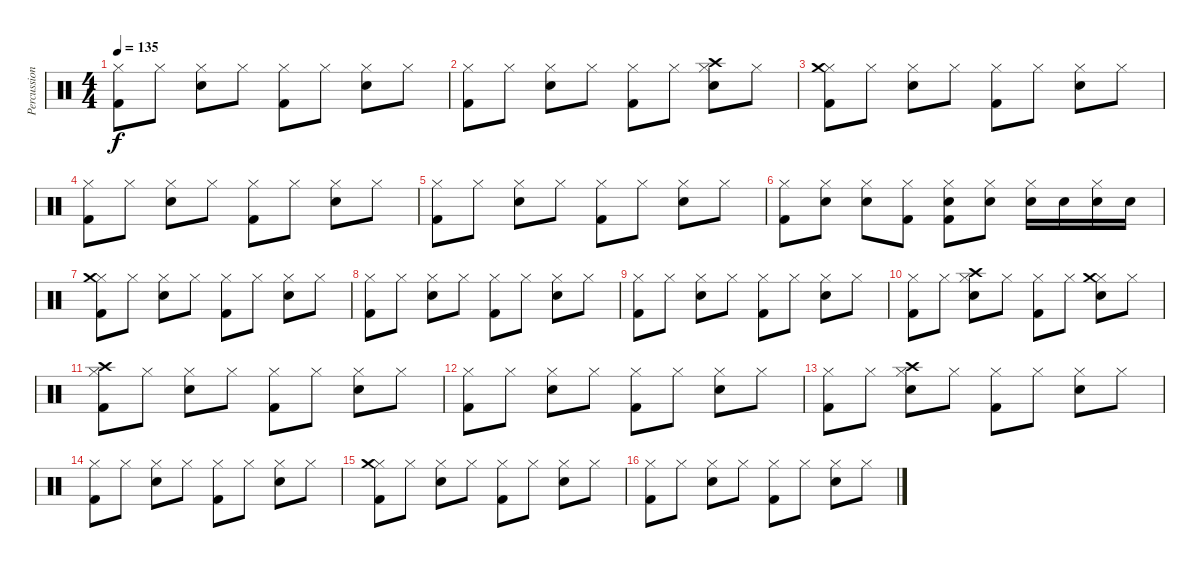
\track ("Percussion" "Percussion") {instrument percussion}
\staff {score}
\articulation defaults
\ts (4 4)
\tempo 135
\clef neutral
\ks c
("Hi-Hat (closed)" "Kick (hit) 2").8{dy f} "Hi-Hat (closed)".8 ("Hi-Hat (closed)" "Electric Snare (hit)").8 "Hi-Hat (closed)".8 ("Hi-Hat (closed)" "Kick (hit) 2").8 "Hi-Hat (closed)".8 ("Hi-Hat (closed)" "Electric Snare (hit)").8 "Hi-Hat (closed)".8 |
("Hi-Hat (closed)" "Kick (hit) 2").8 "Hi-Hat (closed)".8 ("Hi-Hat (closed)" "Electric Snare (hit)").8 "Hi-Hat (closed)".8 ("Hi-Hat (closed)" "Kick (hit) 2").8 "Hi-Hat (closed)".8 ("Hi-Hat (closed)" "Crash high (hit)" "Electric Snare (hit)").8 "Hi-Hat (closed)".8 |
("Hi-Hat (closed)" "Kick (hit) 2" "Crash medium (hit)").8 "Hi-Hat (closed)".8 ("Hi-Hat (closed)" "Electric Snare (hit)").8 "Hi-Hat (closed)".8 ("Hi-Hat (closed)" "Kick (hit) 2").8 "Hi-Hat (closed)".8 ("Hi-Hat (closed)" "Electric Snare (hit)").8 "Hi-Hat (closed)".8 |
("Hi-Hat (closed)" "Kick (hit) 2").8 "Hi-Hat (closed)".8 ("Hi-Hat (closed)" "Electric Snare (hit)").8 "Hi-Hat (closed)".8 ("Hi-Hat (closed)" "Kick (hit) 2").8 "Hi-Hat (closed)".8 ("Hi-Hat (closed)" "Electric Snare (hit)").8 "Hi-Hat (closed)".8 |
("Hi-Hat (closed)" "Kick (hit) 2").8 "Hi-Hat (closed)".8 ("Hi-Hat (closed)" "Electric Snare (hit)").8 "Hi-Hat (closed)".8 ("Hi-Hat (closed)" "Kick (hit) 2").8 "Hi-Hat (closed)".8 ("Hi-Hat (closed)" "Electric Snare (hit)").8 "Hi-Hat (closed)".8 |
("Hi-Hat (closed)" "Kick (hit) 2").8 ("Hi-Hat (closed)" "Electric Snare (hit)").8 ("Hi-Hat (closed)" "Electric Snare (hit)").8 ("Hi-Hat (closed)" "Kick (hit) 2").8 ("Hi-Hat (closed)" "Kick (hit) 2" "Electric Snare (hit)").8 ("Hi-Hat (closed)" "Electric Snare (hit)").8 ("Hi-Hat (closed)" "Electric Snare (hit)").16 "Electric Snare (hit)".16 ("Hi-Hat (closed)" "Electric Snare (hit)").16 "Electric Snare (hit)".16 |
("Hi-Hat (closed)" "Kick (hit) 2" "Crash medium (hit)").8 "Hi-Hat (closed)".8 ("Hi-Hat (closed)" "Electric Snare (hit)").8 "Hi-Hat (closed)".8 ("Hi-Hat (closed)" "Kick (hit) 2").8 "Hi-Hat (closed)".8 ("Hi-Hat (closed)" "Electric Snare (hit)").8 "Hi-Hat (closed)".8 |
("Hi-Hat (closed)" "Kick (hit) 2").8 "Hi-Hat (closed)".8 ("Hi-Hat (closed)" "Electric Snare (hit)").8 "Hi-Hat (closed)".8 ("Hi-Hat (closed)" "Kick (hit) 2").8 "Hi-Hat (closed)".8 ("Hi-Hat (closed)" "Electric Snare (hit)").8 "Hi-Hat (closed)".8 |
("Hi-Hat (closed)" "Kick (hit) 2").8 "Hi-Hat (closed)".8 ("Hi-Hat (closed)" "Electric Snare (hit)").8 "Hi-Hat (closed)".8 ("Hi-Hat (closed)" "Kick (hit) 2").8 "Hi-Hat (closed)".8 ("Hi-Hat (closed)" "Electric Snare (hit)").8 "Hi-Hat (closed)".8 |
("Hi-Hat (closed)" "Kick (hit) 2").8 "Hi-Hat (closed)".8 ("Hi-Hat (closed)" "Crash high (hit)" "Electric Snare (hit)").8 "Hi-Hat (closed)".8 ("Hi-Hat (closed)" "Kick (hit) 2").8 "Hi-Hat (closed)".8 ("Hi-Hat (closed)" "Crash medium (hit)" "Electric Snare (hit)").8 "Hi-Hat (closed)".8 |
("Hi-Hat (closed)" "Kick (hit) 2" "Crash high (hit)").8 "Hi-Hat (closed)".8 ("Hi-Hat (closed)" "Electric Snare (hit)").8 "Hi-Hat (closed)".8 ("Hi-Hat (closed)" "Kick (hit) 2").8 "Hi-Hat (closed)".8 ("Hi-Hat (closed)" "Electric Snare (hit)").8 "Hi-Hat (closed)".8 |
("Hi-Hat (closed)" "Kick (hit) 2").8 "Hi-Hat (closed)".8 ("Hi-Hat (closed)" "Electric Snare (hit)").8 "Hi-Hat (closed)".8 ("Hi-Hat (closed)" "Kick (hit) 2").8 "Hi-Hat (closed)".8 ("Hi-Hat (closed)" "Electric Snare (hit)").8 "Hi-Hat (closed)".8 |
("Hi-Hat (closed)" "Kick (hit) 2").8 "Hi-Hat (closed)".8 ("Hi-Hat (closed)" "Crash high (hit)" "Electric Snare (hit)").8 "Hi-Hat (closed)".8 ("Hi-Hat (closed)" "Kick (hit) 2").8 "Hi-Hat (closed)".8 ("Hi-Hat (closed)" "Electric Snare (hit)").8 "Hi-Hat (closed)".8 |
("Hi-Hat (closed)" "Kick (hit) 2").8 "Hi-Hat (closed)".8 ("Hi-Hat (closed)" "Electric Snare (hit)").8 "Hi-Hat (closed)".8 ("Hi-Hat (closed)" "Kick (hit) 2").8 "Hi-Hat (closed)".8 ("Hi-Hat (closed)" "Electric Snare (hit)").8 "Hi-Hat (closed)".8 |
("Hi-Hat (closed)" "Kick (hit) 2" "Crash medium (hit)").8 "Hi-Hat (closed)".8 ("Hi-Hat (closed)" "Electric Snare (hit)").8 "Hi-Hat (closed)".8 ("Hi-Hat (closed)" "Kick (hit) 2").8 "Hi-Hat (closed)".8 ("Hi-Hat (closed)" "Electric Snare (hit)").8 "Hi-Hat (closed)".8 |
("Hi-Hat (closed)" "Kick (hit) 2").8 "Hi-Hat (closed)".8 ("Hi-Hat (closed)" "Electric Snare (hit)").8 "Hi-Hat (closed)".8 ("Hi-Hat (closed)" "Kick (hit) 2").8 "Hi-Hat (closed)".8 ("Hi-Hat (closed)" "Electric Snare (hit)").8 "Hi-Hat (closed)".8
